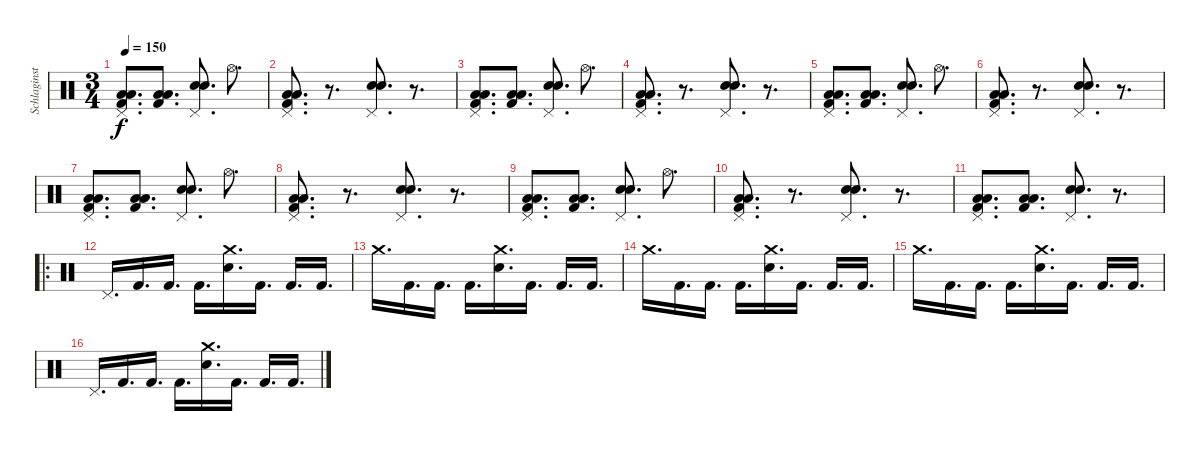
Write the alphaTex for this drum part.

\track ("Schlaginstrumente - Auswahl" "Schlaginst") {instrument percussion}
\staff {score}
\articulation defaults
\ts (3 4)
\tempo 150
\clef neutral
\ks c
("Pedal Hi-Hat (hit)" "Low Tom (hit)" "Low Tom (hit)" "Kick (hit) 2").8{d dy f} ("Low Tom (hit)" "Low Tom (hit)" "Kick (hit) 2").8{d} ("Pedal Hi-Hat (hit)" "Snare (hit) 2" "Snare (hit) 2").8{d} "Hi-Hat (open)".8{d} |
("Pedal Hi-Hat (hit)" "Low Tom (hit)" "Low Tom (hit)" "Kick (hit) 2").8{d} r.8{d} ("Pedal Hi-Hat (hit)" "Snare (hit) 2" "Snare (hit) 2").8{d} r.8{d} |
("Pedal Hi-Hat (hit)" "Low Tom (hit)" "Low Tom (hit)" "Kick (hit) 2").8{d} ("Low Tom (hit)" "Low Tom (hit)" "Kick (hit) 2").8{d} ("Pedal Hi-Hat (hit)" "Snare (hit) 2" "Snare (hit) 2").8{d} "Hi-Hat (open)".8{d} |
("Pedal Hi-Hat (hit)" "Low Tom (hit)" "Low Tom (hit)" "Kick (hit) 2").8{d} r.8{d} ("Pedal Hi-Hat (hit)" "Snare (hit) 2" "Snare (hit) 2").8{d} r.8{d} |
("Pedal Hi-Hat (hit)" "Low Tom (hit)" "Low Tom (hit)" "Kick (hit) 2").8{d} ("Low Tom (hit)" "Low Tom (hit)" "Kick (hit) 2").8{d} ("Pedal Hi-Hat (hit)" "Snare (hit) 2" "Snare (hit) 2").8{d} "Hi-Hat (open)".8{d} |
("Pedal Hi-Hat (hit)" "Low Tom (hit)" "Low Tom (hit)" "Kick (hit) 2").8{d} r.8{d} ("Pedal Hi-Hat (hit)" "Snare (hit) 2" "Snare (hit) 2").8{d} r.8{d} |
("Pedal Hi-Hat (hit)" "Low Tom (hit)" "Low Tom (hit)" "Kick (hit) 2").8{d} ("Low Tom (hit)" "Low Tom (hit)" "Kick (hit) 2").8{d} ("Pedal Hi-Hat (hit)" "Snare (hit) 2" "Snare (hit) 2").8{d} "Hi-Hat (open)".8{d} |
("Pedal Hi-Hat (hit)" "Low Tom (hit)" "Low Tom (hit)" "Kick (hit) 2").8{d} r.8{d} ("Pedal Hi-Hat (hit)" "Snare (hit) 2" "Snare (hit) 2").8{d} r.8{d} |
("Pedal Hi-Hat (hit)" "Low Tom (hit)" "Low Tom (hit)" "Kick (hit) 2").8{d} ("Low Tom (hit)" "Low Tom (hit)" "Kick (hit) 2").8{d} ("Pedal Hi-Hat (hit)" "Snare (hit) 2" "Snare (hit) 2").8{d} "Hi-Hat (open)".8{d} |
("Pedal Hi-Hat (hit)" "Low Tom (hit)" "Low Tom (hit)" "Kick (hit) 2").8{d} r.8{d} ("Pedal Hi-Hat (hit)" "Snare (hit) 2" "Snare (hit) 2").8{d} r.8{d} |
("Pedal Hi-Hat (hit)" "Low Tom (hit)" "Low Tom (hit)" "Kick (hit) 2").8{d} ("Low Tom (hit)" "Low Tom (hit)" "Kick (hit) 2").8{d} ("Pedal Hi-Hat (hit)" "Snare (hit) 2" "Snare (hit) 2").8{d} r.8{d} |
\ro "Pedal Hi-Hat (hit)".16{d} "Kick (hit) 2".16{d} "Kick (hit) 2".16{d} "Kick (hit) 2".16{d}
("Crash medium (hit)" "Snare (hit) 2").16{d} "Kick (hit) 2".16{d} "Kick (hit) 2".16{d} "Kick (hit) 2".16{d} |
"Crash medium (hit)".16{d} "Kick (hit) 2".16{d} "Kick (hit) 2".16{d} "Kick (hit) 2".16{d} ("Crash medium (hit)" "Snare (hit) 2").16{d} "Kick (hit) 2".16{d} "Kick (hit) 2".16{d} "Kick (hit) 2".16{d} |
"Crash medium (hit)".16{d} "Kick (hit) 2".16{d} "Kick (hit) 2".16{d} "Kick (hit) 2".16{d} ("Crash medium (hit)" "Snare (hit) 2").16{d} "Kick (hit) 2".16{d} "Kick (hit) 2".16{d} "Kick (hit) 2".16{d} |
"Crash medium (hit)".16{d} "Kick (hit) 2".16{d} "Kick (hit) 2".16{d} "Kick (hit) 2".16{d} ("Crash medium (hit)" "Snare (hit) 2").16{d} "Kick (hit) 2".16{d} "Kick (hit) 2".16{d} "Kick (hit) 2".16{d} |
"Pedal Hi-Hat (hit)".16{d} "Kick (hit) 2".16{d} "Kick (hit) 2".16{d} "Kick (hit) 2".16{d} ("Crash medium (hit)" "Snare (hit) 2").16{d} "Kick (hit) 2".16{d} "Kick (hit) 2".16{d} "Kick (hit) 2".16{d}
